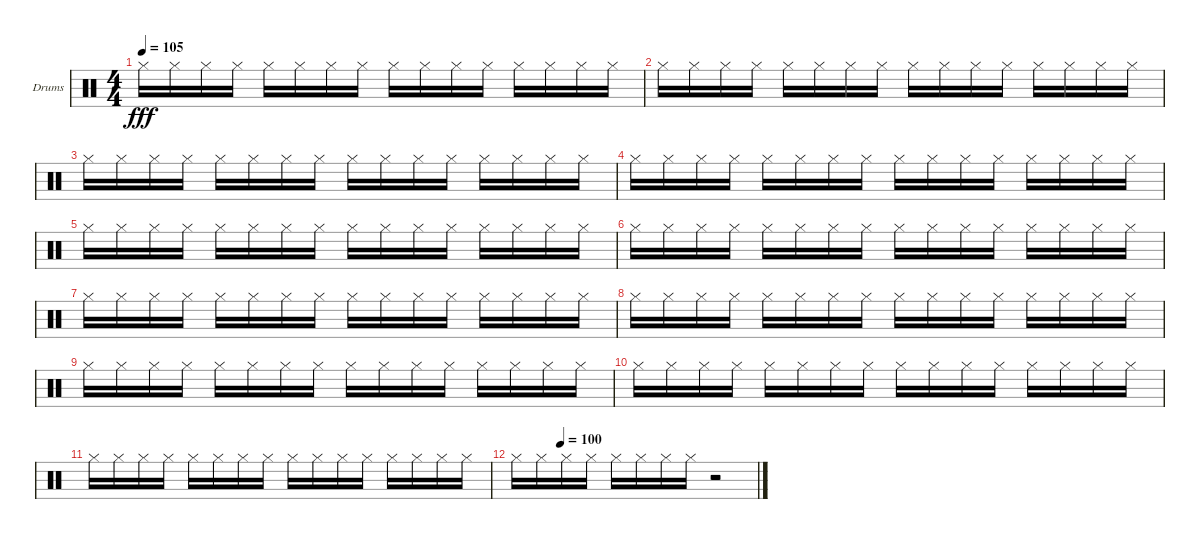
\bracketExtendMode groupsimilarinstruments
\firstSystemTrackNameOrientation horizontal
\otherSystemsTrackNameOrientation horizontal
\track ("Ximbau" "Drums") {instrument percussion}
\staff {score}
\articulation defaults
\ts (4 4)
\tempo 105
\clef neutral
\scale
0.333333
\ks c "Hi-Hat (closed)".16{dy fff} "Hi-Hat (closed)".16 "Hi-Hat (closed)".16 "Hi-Hat (closed)".16 "Hi-Hat (closed)".16 "Hi-Hat (closed)".16 "Hi-Hat (closed)".16 "Hi-Hat (closed)".16 "Hi-Hat (closed)".16 "Hi-Hat (closed)".16 "Hi-Hat (closed)".16 "Hi-Hat (closed)".16 "Hi-Hat (closed)".16 "Hi-Hat (closed)".16 "Hi-Hat (closed)".16 "Hi-Hat (closed)".16
|
\scale
0.333333 "Hi-Hat (closed)".16 "Hi-Hat (closed)".16 "Hi-Hat (closed)".16 "Hi-Hat (closed)".16 "Hi-Hat (closed)".16 "Hi-Hat (closed)".16 "Hi-Hat (closed)".16 "Hi-Hat (closed)".16 "Hi-Hat (closed)".16 "Hi-Hat (closed)".16 "Hi-Hat (closed)".16 "Hi-Hat (closed)".16 "Hi-Hat (closed)".16 "Hi-Hat (closed)".16 "Hi-Hat (closed)".16 "Hi-Hat (closed)".16 |
\scale
0.333333 "Hi-Hat (closed)".16 "Hi-Hat (closed)".16 "Hi-Hat (closed)".16 "Hi-Hat (closed)".16 "Hi-Hat (closed)".16 "Hi-Hat (closed)".16 "Hi-Hat (closed)".16 "Hi-Hat (closed)".16 "Hi-Hat (closed)".16 "Hi-Hat (closed)".16 "Hi-Hat (closed)".16 "Hi-Hat (closed)".16 "Hi-Hat (closed)".16 "Hi-Hat (closed)".16 "Hi-Hat (closed)".16 "Hi-Hat (closed)".16 |
\scale
0.333333 "Hi-Hat (closed)".16 "Hi-Hat (closed)".16 "Hi-Hat (closed)".16 "Hi-Hat (closed)".16 "Hi-Hat (closed)".16 "Hi-Hat (closed)".16 "Hi-Hat (closed)".16 "Hi-Hat (closed)".16 "Hi-Hat (closed)".16 "Hi-Hat (closed)".16 "Hi-Hat (closed)".16 "Hi-Hat (closed)".16 "Hi-Hat (closed)".16 "Hi-Hat (closed)".16 "Hi-Hat (closed)".16 "Hi-Hat (closed)".16 |
\scale
0.333333 "Hi-Hat (closed)".16 "Hi-Hat (closed)".16 "Hi-Hat (closed)".16 "Hi-Hat (closed)".16 "Hi-Hat (closed)".16 "Hi-Hat (closed)".16 "Hi-Hat (closed)".16 "Hi-Hat (closed)".16 "Hi-Hat (closed)".16 "Hi-Hat (closed)".16 "Hi-Hat (closed)".16 "Hi-Hat (closed)".16 "Hi-Hat (closed)".16 "Hi-Hat (closed)".16 "Hi-Hat (closed)".16 "Hi-Hat (closed)".16 |
\scale
0.333333 "Hi-Hat (closed)".16 "Hi-Hat (closed)".16 "Hi-Hat (closed)".16 "Hi-Hat (closed)".16 "Hi-Hat (closed)".16 "Hi-Hat (closed)".16 "Hi-Hat (closed)".16 "Hi-Hat (closed)".16 "Hi-Hat (closed)".16 "Hi-Hat (closed)".16 "Hi-Hat (closed)".16 "Hi-Hat (closed)".16 "Hi-Hat (closed)".16 "Hi-Hat (closed)".16 "Hi-Hat (closed)".16 "Hi-Hat (closed)".16 |
\scale
0.333333 "Hi-Hat (closed)".16 "Hi-Hat (closed)".16 "Hi-Hat (closed)".16 "Hi-Hat (closed)".16 "Hi-Hat (closed)".16 "Hi-Hat (closed)".16 "Hi-Hat (closed)".16 "Hi-Hat (closed)".16 "Hi-Hat (closed)".16 "Hi-Hat (closed)".16 "Hi-Hat (closed)".16 "Hi-Hat (closed)".16 "Hi-Hat (closed)".16 "Hi-Hat (closed)".16 "Hi-Hat (closed)".16 "Hi-Hat (closed)".16 |
\scale
0.333333 "Hi-Hat (closed)".16 "Hi-Hat (closed)".16 "Hi-Hat (closed)".16 "Hi-Hat (closed)".16 "Hi-Hat (closed)".16 "Hi-Hat (closed)".16 "Hi-Hat (closed)".16 "Hi-Hat (closed)".16 "Hi-Hat (closed)".16 "Hi-Hat (closed)".16 "Hi-Hat (closed)".16 "Hi-Hat (closed)".16 "Hi-Hat (closed)".16 "Hi-Hat (closed)".16 "Hi-Hat (closed)".16 "Hi-Hat (closed)".16 |
\scale
0.333333 "Hi-Hat (closed)".16 "Hi-Hat (closed)".16 "Hi-Hat (closed)".16 "Hi-Hat (closed)".16 "Hi-Hat (closed)".16 "Hi-Hat (closed)".16 "Hi-Hat (closed)".16 "Hi-Hat (closed)".16 "Hi-Hat (closed)".16 "Hi-Hat (closed)".16 "Hi-Hat (closed)".16 "Hi-Hat (closed)".16 "Hi-Hat (closed)".16 "Hi-Hat (closed)".16 "Hi-Hat (closed)".16 "Hi-Hat (closed)".16 |
\scale
0.333333 "Hi-Hat (closed)".16 "Hi-Hat (closed)".16 "Hi-Hat (closed)".16 "Hi-Hat (closed)".16 "Hi-Hat (closed)".16 "Hi-Hat (closed)".16 "Hi-Hat (closed)".16 "Hi-Hat (closed)".16 "Hi-Hat (closed)".16 "Hi-Hat (closed)".16 "Hi-Hat (closed)".16 "Hi-Hat (closed)".16 "Hi-Hat (closed)".16 "Hi-Hat (closed)".16 "Hi-Hat (closed)".16 "Hi-Hat (closed)".16 |
\scale
0.333333 "Hi-Hat (closed)".16 "Hi-Hat (closed)".16 "Hi-Hat (closed)".16 "Hi-Hat (closed)".16 "Hi-Hat (closed)".16 "Hi-Hat (closed)".16 "Hi-Hat (closed)".16 "Hi-Hat (closed)".16 "Hi-Hat (closed)".16 "Hi-Hat (closed)".16 "Hi-Hat (closed)".16 "Hi-Hat (closed)".16 "Hi-Hat (closed)".16 "Hi-Hat (closed)".16 "Hi-Hat (closed)".16 "Hi-Hat (closed)".16 |
\tempo (100 0.1875)
\scale
0.333333 "Hi-Hat (closed)".16 "Hi-Hat (closed)".16 "Hi-Hat (closed)".16 "Hi-Hat (closed)".16 "Hi-Hat (closed)".16 "Hi-Hat (closed)".16 "Hi-Hat (closed)".16 "Hi-Hat (closed)".16 r.2 |
\scale
0.333333 |
\scale
0.333333 |
\scale
0.333333 |
\scale
0.333333
